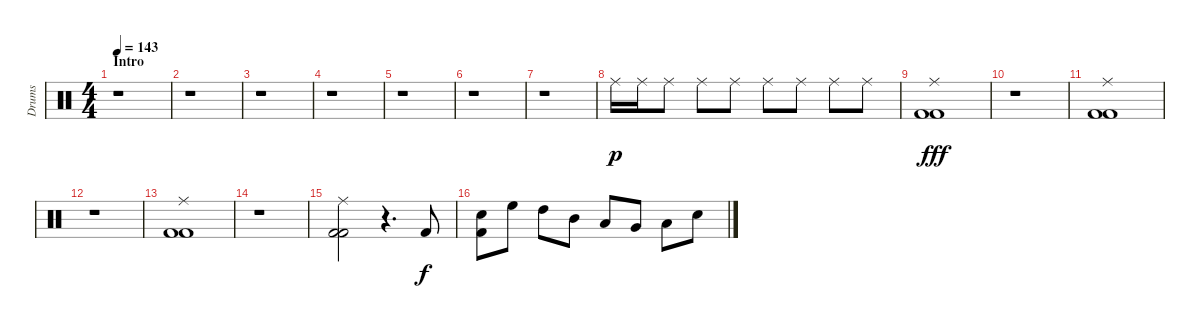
\track ("Drums" "Drums") {instrument percussion}
\staff {score}
\articulation defaults
\ts (4 4)
\section ("" "Intro")
\tempo 143
\clef neutral
\ks c
r.1{dy p} |
r.1 |
r.1 |
r.1 |
r.1 |
r.1 |
r.1 |
"Ride (middle)".16 "Ride (middle)".16 "Ride (middle)".8 "Ride (middle)".8 "Ride (middle)".8 "Ride (middle)".8 "Ride (middle)".8 "Ride (middle)".8 "Ride (middle)".8 |
("Ride (middle)" "Kick (hit) 2" "Kick (hit) 2").1{dy fff} |
r.1 |
("Ride (middle)" "Kick (hit) 2" "Kick (hit) 2").1 |
r.1 |
("Ride (middle)" "Kick (hit) 2" "Kick (hit) 2").1 |
r.1 |
("Ride (middle)" "Kick (hit) 2" "Kick (hit) 2").2 r.4{d} "Kick (hit) 2".8{dy f} |
("Electric Snare (hit)" "Kick (hit) 2").8 "High Floor Tom (hit)".8 "High Tom (hit)".8 "Mid Tom (hit)".8 "Low Tom (hit)".8 "Very Low Tom (hit)".8 "Low Floor Tom (hit)".8 "Electric Snare (hit)".8
